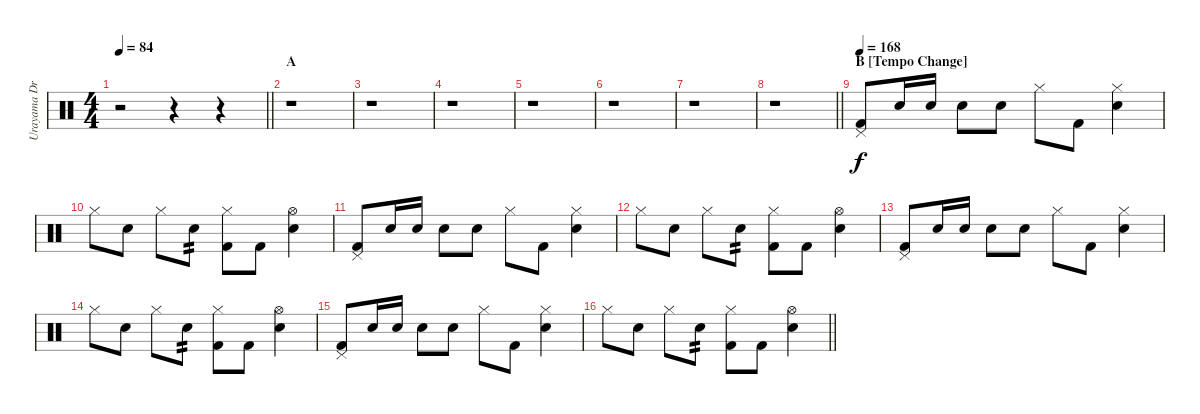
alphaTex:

\track ("Urayama Drums" "Urayama Dr") {instrument percussion}
\staff {score}
\articulation defaults
\ts (4 4)
\tempo 84
\clef neutral
\barLineRight lightlight
\ks c
r.2{dy f} r.4 r.4 |
\section ("" "A")
r.1 |
r.1 |
r.1 |
r.1 |
r.1 |
r.1 |
\barLineRight lightlight
r.1 |
\section ("" "B [Tempo Change]")
\tempo 168
("Pedal Hi-Hat (hit)" "Kick (hit) 2").8 "Snare (hit) 2".16 "Snare (hit) 2".16 "Snare (hit) 2".8 "Snare (hit) 2".8 "Hi-Hat (closed)".8 "Kick (hit) 2".8 ("Hi-Hat (closed)" "Snare (hit) 2").4 |
"Hi-Hat (closed)".8 "Snare (hit) 2".8 "Hi-Hat (closed)".8 "Snare (hit) 2".8{tp 2} ("Hi-Hat (closed)" "Kick (hit) 2").8 "Kick (hit) 2".8 ("Hi-Hat (open)" "Snare (hit) 2").4 |
("Pedal Hi-Hat (hit)" "Kick (hit) 2").8 "Snare (hit) 2".16 "Snare (hit) 2".16 "Snare (hit) 2".8 "Snare (hit) 2".8 "Hi-Hat (closed)".8 "Kick (hit) 2".8 ("Hi-Hat (closed)" "Snare (hit) 2").4 |
"Hi-Hat (closed)".8 "Snare (hit) 2".8 "Hi-Hat (closed)".8 "Snare (hit) 2".8{tp 2} ("Hi-Hat (closed)" "Kick (hit) 2").8 "Kick (hit) 2".8 ("Hi-Hat (open)" "Snare (hit) 2").4 |
("Pedal Hi-Hat (hit)" "Kick (hit) 2").8 "Snare (hit) 2".16 "Snare (hit) 2".16 "Snare (hit) 2".8 "Snare (hit) 2".8 "Hi-Hat (closed)".8 "Kick (hit) 2".8 ("Hi-Hat (closed)" "Snare (hit) 2").4 |
"Hi-Hat (closed)".8 "Snare (hit) 2".8 "Hi-Hat (closed)".8 "Snare (hit) 2".8{tp 2} ("Hi-Hat (closed)" "Kick (hit) 2").8 "Kick (hit) 2".8 ("Hi-Hat (open)" "Snare (hit) 2").4 |
("Pedal Hi-Hat (hit)" "Kick (hit) 2").8 "Snare (hit) 2".16 "Snare (hit) 2".16 "Snare (hit) 2".8 "Snare (hit) 2".8 "Hi-Hat (closed)".8 "Kick (hit) 2".8 ("Hi-Hat (closed)" "Snare (hit) 2").4 |
\barLineRight lightlight "Hi-Hat (closed)".8 "Snare (hit) 2".8 "Hi-Hat (closed)".8 "Snare (hit) 2".8{tp 2}
("Hi-Hat (closed)" "Kick (hit) 2").8 "Kick (hit) 2".8 ("Hi-Hat (open)" "Snare (hit) 2").4
